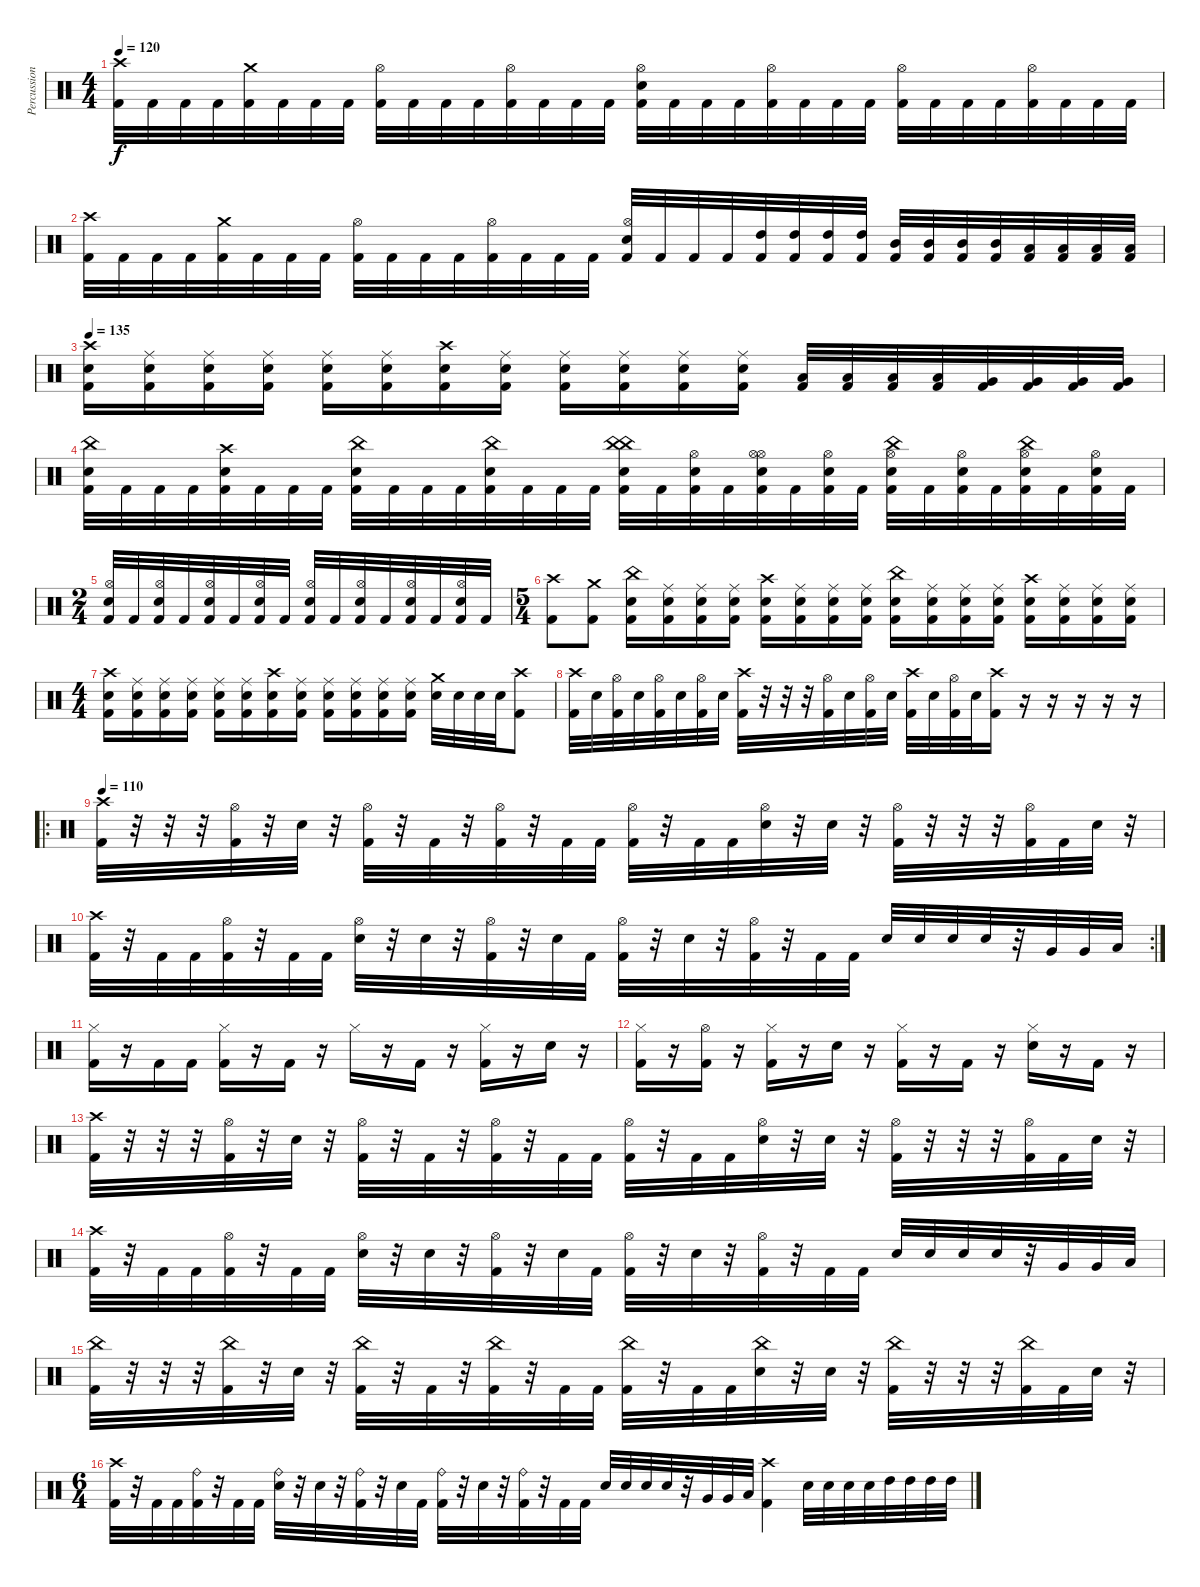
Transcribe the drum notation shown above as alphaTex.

\track ("Percussion" "Percussion") {instrument percussion}
\staff {score}
\articulation defaults
\ts (4 4)
\tempo 120
\clef neutral
\ks c
("Crash high (hit)" "Kick (hit) 2").32{dy f} "Kick (hit) 2".32 "Kick (hit) 2".32 "Kick (hit) 2".32 ("Crash medium (hit)" "Kick (hit) 2").32 "Kick (hit) 2".32 "Kick (hit) 2".32 "Kick (hit) 2".32 ("Hi-Hat (open)" "Kick (hit) 2").32 "Kick (hit) 2".32 "Kick (hit) 2".32 "Kick (hit) 2".32 ("Hi-Hat (open)" "Kick (hit) 2").32 "Kick (hit) 2".32 "Kick (hit) 2".32 "Kick (hit) 2".32 ("Electric Snare (hit)" "Hi-Hat (open)" "Kick (hit) 2").32 "Kick (hit) 2".32 "Kick (hit) 2".32 "Kick (hit) 2".32 ("Hi-Hat (open)" "Kick (hit) 2").32 "Kick (hit) 2".32 "Kick (hit) 2".32 "Kick (hit) 2".32 ("Hi-Hat (open)" "Kick (hit) 2").32 "Kick (hit) 2".32 "Kick (hit) 2".32 "Kick (hit) 2".32 ("Hi-Hat (open)" "Kick (hit) 2").32 "Kick (hit) 2".32 "Kick (hit) 2".32 "Kick (hit) 2".32 |
("Crash high (hit)" "Kick (hit) 2").32 "Kick (hit) 2".32 "Kick (hit) 2".32 "Kick (hit) 2".32 ("Crash medium (hit)" "Kick (hit) 2").32 "Kick (hit) 2".32 "Kick (hit) 2".32 "Kick (hit) 2".32 ("Hi-Hat (open)" "Kick (hit) 2").32 "Kick (hit) 2".32 "Kick (hit) 2".32 "Kick (hit) 2".32 ("Hi-Hat (open)" "Kick (hit) 2").32 "Kick (hit) 2".32 "Kick (hit) 2".32 "Kick (hit) 2".32 ("Electric Snare (hit)" "Hi-Hat (open)" "Kick (hit) 2").32 "Kick (hit) 2".32 "Kick (hit) 2".32 "Kick (hit) 2".32 ("High Tom (hit)" "Kick (hit) 2").32 ("High Tom (hit)" "Kick (hit) 2").32 ("High Tom (hit)" "Kick (hit) 2").32 ("High Tom (hit)" "Kick (hit) 2").32 ("Mid Tom (hit)" "Kick (hit) 2").32 ("Mid Tom (hit)" "Kick (hit) 2").32 ("Mid Tom (hit)" "Kick (hit) 2").32 ("Mid Tom (hit)" "Kick (hit) 2").32 ("Low Tom (hit)" "Kick (hit) 2").32 ("Low Tom (hit)" "Kick (hit) 2").32 ("Low Tom (hit)" "Kick (hit) 2").32 ("Low Tom (hit)" "Kick (hit) 2").32 |
\tempo 135
("Crash high (hit)" "Electric Snare (hit)" "Kick (hit) 2").16 ("Ride (middle)" "Electric Snare (hit)" "Kick (hit) 2").16 ("Ride (middle)" "Electric Snare (hit)" "Kick (hit) 2").16 ("Ride (middle)" "Electric Snare (hit)" "Kick (hit) 2").16 ("Ride (middle)" "Electric Snare (hit)" "Kick (hit) 2").16 ("Ride (middle)" "Electric Snare (hit)" "Kick (hit) 2").16 ("Crash high (hit)" "Electric Snare (hit)" "Kick (hit) 2").16 ("Ride (middle)" "Electric Snare (hit)" "Kick (hit) 2").16 ("Ride (middle)" "Electric Snare (hit)" "Kick (hit) 2").16 ("Ride (middle)" "Electric Snare (hit)" "Kick (hit) 2").16 ("Ride (middle)" "Electric Snare (hit)" "Kick (hit) 2").16 ("Ride (middle)" "Electric Snare (hit)" "Kick (hit) 2").16 ("Low Tom (hit)" "Kick (hit) 2").32 ("Low Tom (hit)" "Kick (hit) 2").32 ("Low Tom (hit)" "Kick (hit) 2").32 ("Low Tom (hit)" "Kick (hit) 2").32 ("Very Low Tom (hit)" "Kick (hit) 2").32 ("Very Low Tom (hit)" "Kick (hit) 2").32 ("Very Low Tom (hit)" "Kick (hit) 2").32 ("Very Low Tom (hit)" "Kick (hit) 2").32 |
("China (hit)" "Kick (hit) 2" "Electric Snare (hit)").32 "Kick (hit) 2".32 "Kick (hit) 2".32 "Kick (hit) 2".32 ("Crash high (hit)" "Kick (hit) 2" "Electric Snare (hit)").32 "Kick (hit) 2".32 "Kick (hit) 2".32 "Kick (hit) 2".32 ("China (hit)" "Kick (hit) 2" "Electric Snare (hit)").32 "Kick (hit) 2".32 "Kick (hit) 2".32 "Kick (hit) 2".32 ("China (hit)" "Kick (hit) 2" "Electric Snare (hit)").32 "Kick (hit) 2".32 "Kick (hit) 2".32 "Kick (hit) 2".32 ("China (hit)" "Kick (hit) 2" "Electric Snare (hit)" "China (hit)").32 "Kick (hit) 2".32 ("Kick (hit) 2" "Electric Snare (hit)" "Hi-Hat (open)").32 "Kick (hit) 2".32 ("Hi-Hat (open)" "Kick (hit) 2" "Electric Snare (hit)" "Hi-Hat (open)").32 "Kick (hit) 2".32 ("Kick (hit) 2" "Electric Snare (hit)" "Hi-Hat (open)").32 "Kick (hit) 2".32 ("China (hit)" "Kick (hit) 2" "Electric Snare (hit)" "Hi-Hat (open)").32 "Kick (hit) 2".32 ("Kick (hit) 2" "Electric Snare (hit)" "Hi-Hat (open)").32 "Kick (hit) 2".32 ("China (hit)" "Kick (hit) 2" "Electric Snare (hit)" "Hi-Hat (open)").32 "Kick (hit) 2".32 ("Kick (hit) 2" "Electric Snare (hit)" "Hi-Hat (open)").32 "Kick (hit) 2".32 |
\ts (2 4)
("Kick (hit) 2" "Electric Snare (hit)" "Hi-Hat (open)").32 "Kick (hit) 2".32 ("Kick (hit) 2" "Electric Snare (hit)" "Hi-Hat (open)").32 "Kick (hit) 2".32 ("Kick (hit) 2" "Electric Snare (hit)" "Hi-Hat (open)").32 "Kick (hit) 2".32 ("Kick (hit) 2" "Electric Snare (hit)" "Hi-Hat (open)").32 "Kick (hit) 2".32 ("Kick (hit) 2" "Electric Snare (hit)" "Hi-Hat (open)").32 "Kick (hit) 2".32 ("Kick (hit) 2" "Electric Snare (hit)" "Hi-Hat (open)").32 "Kick (hit) 2".32 ("Kick (hit) 2" "Electric Snare (hit)" "Hi-Hat (open)").32 "Kick (hit) 2".32 ("Kick (hit) 2" "Electric Snare (hit)" "Hi-Hat (open)").32 "Kick (hit) 2".32 |
\ts (5 4)
("Crash high (hit)" "Kick (hit) 2").8 ("Crash medium (hit)" "Kick (hit) 2").8 ("China (hit)" "Electric Snare (hit)" "Kick (hit) 2").16 ("Ride (middle)" "Electric Snare (hit)" "Kick (hit) 2").16 ("Ride (middle)" "Electric Snare (hit)" "Kick (hit) 2").16 ("Ride (middle)" "Electric Snare (hit)" "Kick (hit) 2").16 ("Crash high (hit)" "Electric Snare (hit)" "Kick (hit) 2").16 ("Ride (middle)" "Electric Snare (hit)" "Kick (hit) 2").16 ("Ride (middle)" "Electric Snare (hit)" "Kick (hit) 2").16 ("Ride (middle)" "Electric Snare (hit)" "Kick (hit) 2").16 ("China (hit)" "Electric Snare (hit)" "Kick (hit) 2").16 ("Ride (middle)" "Electric Snare (hit)" "Kick (hit) 2").16 ("Ride (middle)" "Electric Snare (hit)" "Kick (hit) 2").16 ("Ride (middle)" "Electric Snare (hit)" "Kick (hit) 2").16 ("Crash high (hit)" "Electric Snare (hit)" "Kick (hit) 2").16 ("Ride (middle)" "Electric Snare (hit)" "Kick (hit) 2").16 ("Ride (middle)" "Electric Snare (hit)" "Kick (hit) 2").16 ("Ride (middle)" "Electric Snare (hit)" "Kick (hit) 2").16 |
\ts (4 4)
("Crash high (hit)" "Electric Snare (hit)" "Kick (hit) 2").16 ("Ride (middle)" "Electric Snare (hit)" "Kick (hit) 2").16 ("Ride (middle)" "Electric Snare (hit)" "Kick (hit) 2").16 ("Ride (middle)" "Electric Snare (hit)" "Kick (hit) 2").16 ("Ride (middle)" "Electric Snare (hit)" "Kick (hit) 2").16 ("Ride (middle)" "Electric Snare (hit)" "Kick (hit) 2").16 ("Crash high (hit)" "Electric Snare (hit)" "Kick (hit) 2").16 ("Ride (middle)" "Electric Snare (hit)" "Kick (hit) 2").16 ("Ride (middle)" "Electric Snare (hit)" "Kick (hit) 2").16 ("Ride (middle)" "Electric Snare (hit)" "Kick (hit) 2").16 ("Ride (middle)" "Electric Snare (hit)" "Kick (hit) 2").16 ("Ride (middle)" "Electric Snare (hit)" "Kick (hit) 2").16 ("Crash medium (hit)" "Electric Snare (hit)").32 "Electric Snare (hit)".32 "Electric Snare (hit)".32 "Electric Snare (hit)".32 ("Crash high (hit)" "Kick (hit) 2").8 |
("Kick (hit) 2" "Crash high (hit)").32 "Electric Snare (hit)".32 ("Kick (hit) 2" "Hi-Hat (open)").32 "Electric Snare (hit)".32 ("Kick (hit) 2" "Hi-Hat (open)").32 "Electric Snare (hit)".32 ("Kick (hit) 2" "Hi-Hat (open)").32 "Electric Snare (hit)".32 ("Kick (hit) 2" "Crash high (hit)").32 r.32 r.32 r.32 ("Kick (hit) 2" "Hi-Hat (open)").32 "Electric Snare (hit)".32 ("Kick (hit) 2" "Hi-Hat (open)").32 "Electric Snare (hit)".32 ("Kick (hit) 2" "Crash high (hit)").32 "Electric Snare (hit)".32 ("Kick (hit) 2" "Hi-Hat (open)").32 "Electric Snare (hit)".32 ("Kick (hit) 2" "Crash high (hit)").16 r.16 r.16 r.16 r.16 r.16 |
\ro
\tempo 110
("Kick (hit) 2" "Crash high (hit)").32 r.32 r.32 r.32 ("Kick (hit) 2" "Hi-Hat (open)").32 r.32 "Electric Snare (hit)".32 r.32 ("Kick (hit) 2" "Hi-Hat (open)").32 r.32 "Kick (hit) 2".32 r.32 ("Kick (hit) 2" "Hi-Hat (open)").32 r.32 "Kick (hit) 2".32 "Kick (hit) 2".32 ("Kick (hit) 2" "Hi-Hat (open)").32 r.32 "Kick (hit) 2".32 "Kick (hit) 2".32 ("Electric Snare (hit)" "Hi-Hat (open)").32 r.32 "Electric Snare (hit)".32 r.32 ("Kick (hit) 2" "Hi-Hat (open)").32 r.32 r.32 r.32 ("Kick (hit) 2" "Hi-Hat (open)").32 "Kick (hit) 2".32 "Electric Snare (hit)".32 r.32 |
\rc 2
("Kick (hit) 2" "Crash high (hit)").32 r.32 "Kick (hit) 2".32 "Kick (hit) 2".32 ("Kick (hit) 2" "Hi-Hat (open)").32 r.32 "Kick (hit) 2".32 "Kick (hit) 2".32 ("Electric Snare (hit)" "Hi-Hat (open)").32 r.32 "Electric Snare (hit)".32 r.32 ("Kick (hit) 2" "Hi-Hat (open)").32 r.32 "Electric Snare (hit)".32 "Kick (hit) 2".32 ("Kick (hit) 2" "Hi-Hat (open)").32 r.32 "Electric Snare (hit)".32 r.32 ("Kick (hit) 2" "Hi-Hat (open)").32 r.32 "Kick (hit) 2".32 "Kick (hit) 2".32 "Electric Snare (hit)".32 "Electric Snare (hit)".32 "Electric Snare (hit)".32 "Electric Snare (hit)".32 r.32 "Very Low Tom (hit)".32 "Very Low Tom (hit)".32 "Low Floor Tom (hit)".32 |
("Hi-Hat (closed)" "Kick (hit) 2").16 r.16 "Kick (hit) 2".16 "Kick (hit) 2".16 ("Kick (hit) 2" "Hi-Hat (closed)").16 r.16 "Kick (hit) 2".16 r.16 "Hi-Hat (closed)".16 r.16 "Kick (hit) 2".16 r.16 ("Hi-Hat (closed)" "Kick (hit) 2").16 r.16 "Electric Snare (hit)".16 r.16 |
("Hi-Hat (closed)" "Kick (hit) 2").16 r.16 ("Kick (hit) 2" "Hi-Hat (open)").16 r.16 ("Kick (hit) 2" "Hi-Hat (closed)").16 r.16 "Electric Snare (hit)".16 r.16 ("Hi-Hat (closed)" "Kick (hit) 2").16 r.16 "Kick (hit) 2".16 r.16 ("Hi-Hat (closed)" "Electric Snare (hit)").16 r.16 "Kick (hit) 2".16 r.16 |
("Kick (hit) 2" "Crash high (hit)").32 r.32 r.32 r.32 ("Kick (hit) 2" "Hi-Hat (open)").32 r.32 "Electric Snare (hit)".32 r.32 ("Kick (hit) 2" "Hi-Hat (open)").32 r.32 "Kick (hit) 2".32 r.32 ("Kick (hit) 2" "Hi-Hat (open)").32 r.32 "Kick (hit) 2".32 "Kick (hit) 2".32 ("Kick (hit) 2" "Hi-Hat (open)").32 r.32 "Kick (hit) 2".32 "Kick (hit) 2".32 ("Electric Snare (hit)" "Hi-Hat (open)").32 r.32 "Electric Snare (hit)".32 r.32 ("Kick (hit) 2" "Hi-Hat (open)").32 r.32 r.32 r.32 ("Kick (hit) 2" "Hi-Hat (open)").32 "Kick (hit) 2".32 "Electric Snare (hit)".32 r.32 |
("Kick (hit) 2" "Crash high (hit)").32 r.32 "Kick (hit) 2".32 "Kick (hit) 2".32 ("Kick (hit) 2" "Hi-Hat (open)").32 r.32 "Kick (hit) 2".32 "Kick (hit) 2".32 ("Electric Snare (hit)" "Hi-Hat (open)").32 r.32 "Electric Snare (hit)".32 r.32 ("Kick (hit) 2" "Hi-Hat (open)").32 r.32 "Electric Snare (hit)".32 "Kick (hit) 2".32 ("Kick (hit) 2" "Hi-Hat (open)").32 r.32 "Electric Snare (hit)".32 r.32 ("Kick (hit) 2" "Hi-Hat (open)").32 r.32 "Kick (hit) 2".32 "Kick (hit) 2".32 "Electric Snare (hit)".32 "Electric Snare (hit)".32 "Electric Snare (hit)".32 "Electric Snare (hit)".32 r.32 "Very Low Tom (hit)".32 "Very Low Tom (hit)".32 "Low Floor Tom (hit)".32 |
("Kick (hit) 2" "China (hit)").32 r.32 r.32 r.32 ("Kick (hit) 2" "China (hit)").32 r.32 "Electric Snare (hit)".32 r.32 ("Kick (hit) 2" "China (hit)").32 r.32 "Kick (hit) 2".32 r.32 ("Kick (hit) 2" "China (hit)").32 r.32 "Kick (hit) 2".32 "Kick (hit) 2".32 ("Kick (hit) 2" "China (hit)").32 r.32 "Kick (hit) 2".32 "Kick (hit) 2".32 ("Electric Snare (hit)" "China (hit)").32 r.32 "Electric Snare (hit)".32 r.32 ("Kick (hit) 2" "China (hit)").32 r.32 r.32 r.32 ("Kick (hit) 2" "China (hit)").32 "Kick (hit) 2".32 "Electric Snare (hit)".32 r.32 |
\ts (6 4)
("Kick (hit) 2" "Crash high (hit)").32 r.32 "Kick (hit) 2".32 "Kick (hit) 2".32 ("Kick (hit) 2" "Ride (bell)").32 r.32 "Kick (hit) 2".32 "Kick (hit) 2".32 ("Snare (hit) 2" "Ride (bell)").32 r.32 "Electric Snare (hit)".32 r.32 ("Kick (hit) 2" "Ride (bell)").32 r.32 "Electric Snare (hit)".32 "Kick (hit) 2".32 ("Kick (hit) 2" "Ride (bell)").32 r.32 "Electric Snare (hit)".32 r.32 ("Kick (hit) 2" "Ride (bell)").32 r.32 "Kick (hit) 2".32 "Kick (hit) 2".32 "Electric Snare (hit)".32 "Electric Snare (hit)".32 "Electric Snare (hit)".32 "Electric Snare (hit)".32 r.32 "Very Low Tom (hit)".32 "Very Low Tom (hit)".32 "Low Floor Tom (hit)".32 ("Crash high (hit)" "Kick (hit) 2").4 "Electric Snare (hit)".32 "Electric Snare (hit)".32 "Electric Snare (hit)".32 "Electric Snare (hit)".32 "High Tom (hit)".32 "High Tom (hit)".32 "High Tom (hit)".32 "High Tom (hit)".32
